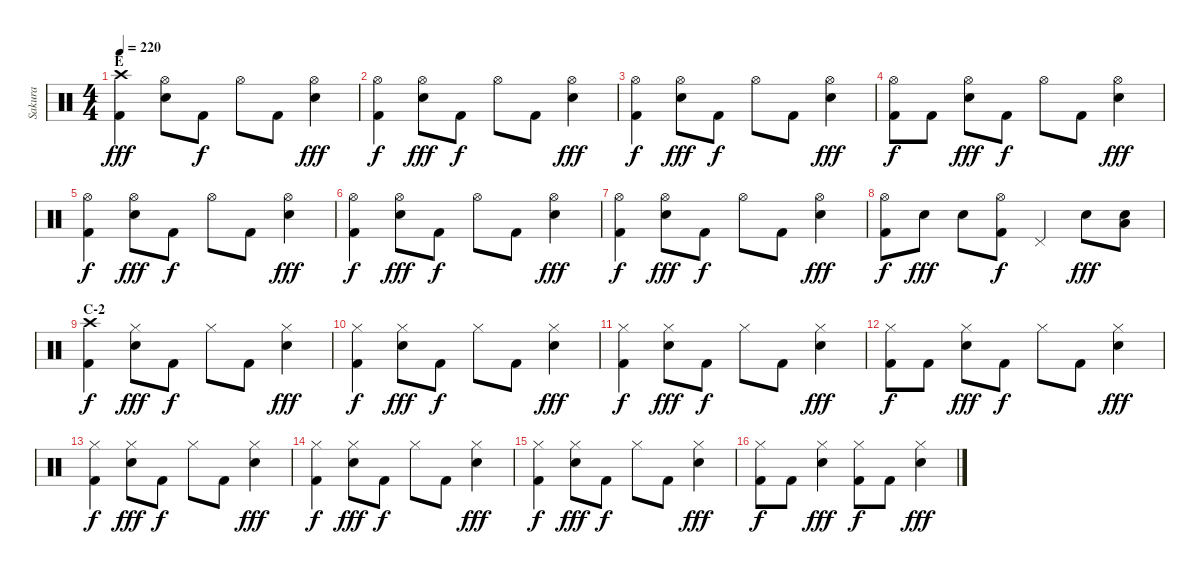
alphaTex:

\track ("Sakura" "Sakura") {instrument percussion}
\staff {score}
\articulation defaults
\ts (4 4)
\section ("" "E")
\tempo 220
\clef neutral
\ks c
("Crash high (hit)" "Kick (hit) 2").4{dy fff} ("Hi-Hat (open)" "Electric Snare (hit)").8 "Kick (hit) 2".8{dy f} "Hi-Hat (open)".8 "Kick (hit) 2".8 ("Hi-Hat (open)" "Electric Snare (hit)").4{dy fff} |
("Hi-Hat (open)" "Kick (hit) 2").4{dy f} ("Hi-Hat (open)" "Electric Snare (hit)").8{dy fff} "Kick (hit) 2".8{dy f} "Hi-Hat (open)".8 "Kick (hit) 2".8 ("Hi-Hat (open)" "Electric Snare (hit)").4{dy fff} |
("Hi-Hat (open)" "Kick (hit) 2").4{dy f} ("Hi-Hat (open)" "Electric Snare (hit)").8{dy fff} "Kick (hit) 2".8{dy f} "Hi-Hat (open)".8 "Kick (hit) 2".8 ("Hi-Hat (open)" "Electric Snare (hit)").4{dy fff} |
("Hi-Hat (open)" "Kick (hit) 2").8{dy f} "Kick (hit) 2".8 ("Hi-Hat (open)" "Electric Snare (hit)").8{dy fff} "Kick (hit) 2".8{dy f} "Hi-Hat (open)".8 "Kick (hit) 2".8 ("Hi-Hat (open)" "Electric Snare (hit)").4{dy fff} |
("Hi-Hat (open)" "Kick (hit) 2").4{dy f} ("Hi-Hat (open)" "Electric Snare (hit)").8{dy fff} "Kick (hit) 2".8{dy f} "Hi-Hat (open)".8 "Kick (hit) 2".8 ("Hi-Hat (open)" "Electric Snare (hit)").4{dy fff} |
("Hi-Hat (open)" "Kick (hit) 2").4{dy f} ("Hi-Hat (open)" "Electric Snare (hit)").8{dy fff} "Kick (hit) 2".8{dy f} "Hi-Hat (open)".8 "Kick (hit) 2".8 ("Hi-Hat (open)" "Electric Snare (hit)").4{dy fff} |
("Hi-Hat (open)" "Kick (hit) 2").4{dy f} ("Hi-Hat (open)" "Electric Snare (hit)").8{dy fff} "Kick (hit) 2".8{dy f} "Hi-Hat (open)".8 "Kick (hit) 2".8 ("Hi-Hat (open)" "Electric Snare (hit)").4{dy fff} |
("Hi-Hat (open)" "Kick (hit) 2").8{dy f} "Electric Snare (hit)".8{dy fff} "Electric Snare (hit)".8 ("Hi-Hat (open)" "Kick (hit) 2").8{dy f} "Pedal Hi-Hat (hit)".4 "Electric Snare (hit)".8{dy fff} ("Electric Snare (hit)" "Low Tom (hit)").8 |
\section ("" "C-2")
("Crash high (hit)" "Kick (hit) 2").4{dy f} ("Hi-Hat (closed)" "Electric Snare (hit)").8{dy fff} "Kick (hit) 2".8{dy f} "Hi-Hat (closed)".8 "Kick (hit) 2".8 ("Hi-Hat (closed)" "Electric Snare (hit)").4{dy fff} |
("Hi-Hat (closed)" "Kick (hit) 2").4{dy f} ("Hi-Hat (closed)" "Electric Snare (hit)").8{dy fff} "Kick (hit) 2".8{dy f} "Hi-Hat (closed)".8 "Kick (hit) 2".8 ("Hi-Hat (closed)" "Electric Snare (hit)").4{dy fff} |
("Hi-Hat (closed)" "Kick (hit) 2").4{dy f} ("Hi-Hat (closed)" "Electric Snare (hit)").8{dy fff} "Kick (hit) 2".8{dy f} "Hi-Hat (closed)".8 "Kick (hit) 2".8 ("Hi-Hat (closed)" "Electric Snare (hit)").4{dy fff} |
("Hi-Hat (closed)" "Kick (hit) 2").8{dy f} "Kick (hit) 2".8 ("Hi-Hat (closed)" "Electric Snare (hit)").8{dy fff} "Kick (hit) 2".8{dy f} "Hi-Hat (closed)".8 "Kick (hit) 2".8 ("Hi-Hat (closed)" "Electric Snare (hit)").4{dy fff} |
("Hi-Hat (closed)" "Kick (hit) 2").4{dy f} ("Hi-Hat (closed)" "Electric Snare (hit)").8{dy fff} "Kick (hit) 2".8{dy f} "Hi-Hat (closed)".8 "Kick (hit) 2".8 ("Hi-Hat (closed)" "Electric Snare (hit)").4{dy fff} |
("Hi-Hat (closed)" "Kick (hit) 2").4{dy f} ("Hi-Hat (closed)" "Electric Snare (hit)").8{dy fff} "Kick (hit) 2".8{dy f} "Hi-Hat (closed)".8 "Kick (hit) 2".8 ("Hi-Hat (closed)" "Electric Snare (hit)").4{dy fff} |
("Hi-Hat (closed)" "Kick (hit) 2").4{dy f} ("Hi-Hat (closed)" "Electric Snare (hit)").8{dy fff} "Kick (hit) 2".8{dy f} "Hi-Hat (closed)".8 "Kick (hit) 2".8 ("Hi-Hat (closed)" "Electric Snare (hit)").4{dy fff} |
("Hi-Hat (closed)" "Kick (hit) 2").8{dy f} "Kick (hit) 2".8 ("Hi-Hat (closed)" "Electric Snare (hit)").4{dy fff} ("Hi-Hat (closed)" "Kick (hit) 2").8{dy f} "Kick (hit) 2".8 ("Hi-Hat (closed)" "Electric Snare (hit)").4{dy fff}
